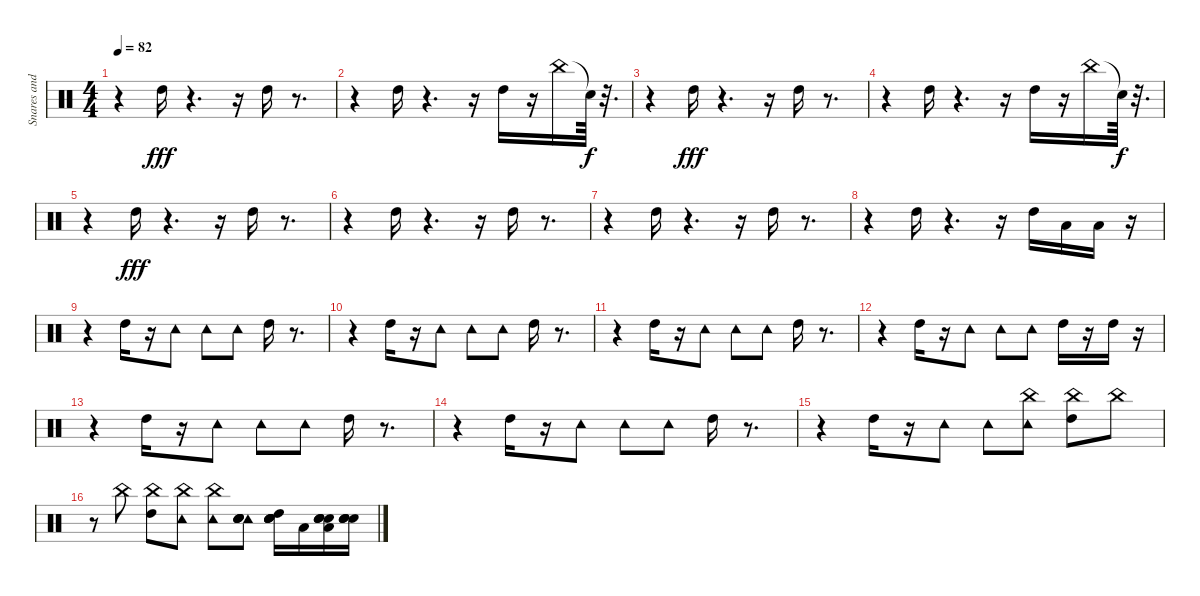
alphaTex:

\track ("Snares and Cymbals" "Snares and") {instrument percussion}
\staff {score}
\articulation defaults
\ts (4 4)
\tempo 82
\clef neutral
\ks c
r.4{dy fff} "High Tom (hit)".16 r.4{d} r.16 "High Tom (hit)".16 r.8{d} |
r.4 "High Tom (hit)".16 r.4{d} r.16 "High Tom (hit)".16 r.16 "China (hit)".16 "Snare (hit)"{t}.64{dy f} r.32{d} |
r.4 "High Tom (hit)".16{dy fff} r.4{d} r.16 "High Tom (hit)".16 r.8{d} |
r.4 "High Tom (hit)".16 r.4{d} r.16 "High Tom (hit)".16 r.16 "China (hit)".16 "Snare (hit)"{t}.64{dy f} r.32{d} |
r.4 "High Tom (hit)".16{dy fff} r.4{d} r.16 "High Tom (hit)".16 r.8{d} |
r.4 "High Tom (hit)".16 r.4{d} r.16 "High Tom (hit)".16 r.8{d} |
r.4 "High Tom (hit)".16 r.4{d} r.16 "High Tom (hit)".16 r.8{d} |
r.4 "High Tom (hit)".16 r.4{d} r.16 "High Tom (hit)".16 "Low Tom (hit)".16 "Low Tom (hit)".16 r.16 |
r.4 "High Tom (hit)".16 r.16 "Tambourine (hit)".8 "Tambourine (hit)".8 "Tambourine (hit)".8 "High Tom (hit)".16 r.8{d} |
r.4 "High Tom (hit)".16 r.16 "Tambourine (hit)".8 "Tambourine (hit)".8 "Tambourine (hit)".8 "High Tom (hit)".16 r.8{d} |
r.4 "High Tom (hit)".16 r.16 "Tambourine (hit)".8 "Tambourine (hit)".8 "Tambourine (hit)".8 "High Tom (hit)".16 r.8{d} |
r.4 "High Tom (hit)".16 r.16 "Tambourine (hit)".8 "Tambourine (hit)".8 "Tambourine (hit)".8 "High Tom (hit)".16 r.16 "High Tom (hit)".16 r.16 |
r.4 "High Tom (hit)".16 r.16 "Tambourine (hit)".8 "Tambourine (hit)".8 "Tambourine (hit)".8 "High Tom (hit)".16 r.8{d} |
r.4 "High Tom (hit)".16 r.16 "Tambourine (hit)".8 "Tambourine (hit)".8 "Tambourine (hit)".8 "High Tom (hit)".16 r.8{d} |
r.4 "High Tom (hit)".16 r.16 "Tambourine (hit)".8 "Tambourine (hit)".8 ("Tambourine (hit)" "China (hit)").8 ("High Tom (hit)" "China (hit)").8 "China (hit)".8 |
r.8 "China (hit)".8 ("High Tom (hit)" "China (hit)").8 ("Tambourine (hit)" "China (hit)").8 ("Tambourine (hit)" "China (hit)").8 ("Tambourine (hit)" "Snare (hit) 2" "Electric Snare (hit)" "Electric Snare (hit)" "Snare (hit) 2").8 ("High Tom (hit)" "Snare (hit) 2" "Electric Snare (hit)" "Electric Snare (hit)" "Snare (hit) 2").16 "Low Tom (hit)".16 ("Low Tom (hit)" "Snare (hit) 2" "Electric Snare (hit)" "Electric Snare (hit)" "Snare (hit) 2").16 ("Snare (hit) 2" "Electric Snare (hit)" "Electric Snare (hit)" "Snare (hit) 2").16
